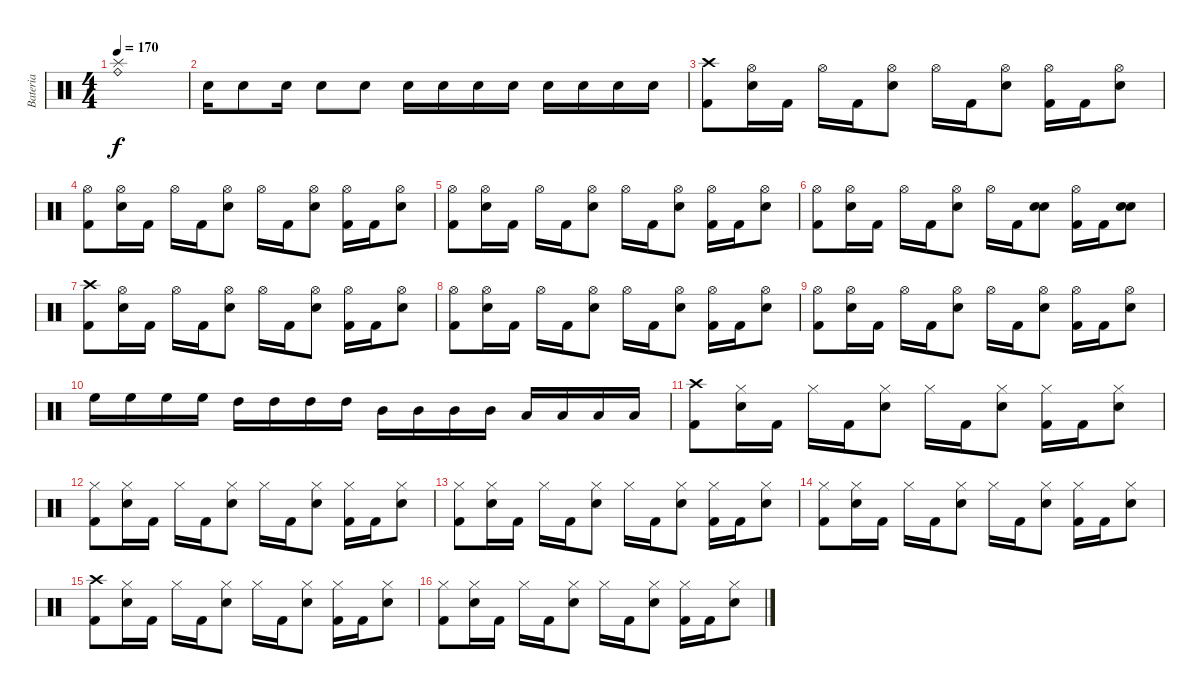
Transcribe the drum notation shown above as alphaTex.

\track ("Bateria" "Bateria") {instrument percussion}
\staff {score}
\articulation defaults
\ts (4 4)
\tempo 170
\clef neutral
\ks c
("Ride (bell)" "Splash (hit)").1{dy f} |
"Snare (hit) 2".16 "Snare (hit) 2".8 "Snare (hit) 2".16 "Snare (hit) 2".8 "Snare (hit) 2".8 "Snare (hit) 2".16 "Snare (hit) 2".16 "Snare (hit) 2".16 "Snare (hit) 2".16 "Snare (hit) 2".16 "Snare (hit) 2".16 "Snare (hit) 2".16 "Snare (hit) 2".16 |
("Crash high (hit)" "Kick (hit) 2").8 ("Hi-Hat (open)" "Snare (hit) 2").16 "Kick (hit) 2".16 "Hi-Hat (open)".16 "Kick (hit) 2".16 ("Hi-Hat (open)" "Snare (hit) 2").8 "Hi-Hat (open)".16 "Kick (hit) 2".16 ("Hi-Hat (open)" "Snare (hit) 2").8 ("Hi-Hat (open)" "Kick (hit) 2").16 "Kick (hit) 2".16 ("Hi-Hat (open)" "Snare (hit) 2").8 |
("Hi-Hat (open)" "Kick (hit) 2").8 ("Hi-Hat (open)" "Snare (hit) 2").16 "Kick (hit) 2".16 "Hi-Hat (open)".16 "Kick (hit) 2".16 ("Hi-Hat (open)" "Snare (hit) 2").8 "Hi-Hat (open)".16 "Kick (hit) 2".16 ("Hi-Hat (open)" "Snare (hit) 2").8 ("Hi-Hat (open)" "Kick (hit) 2").16 "Kick (hit) 2".16 ("Hi-Hat (open)" "Snare (hit) 2").8 |
("Hi-Hat (open)" "Kick (hit) 2").8 ("Hi-Hat (open)" "Snare (hit) 2").16 "Kick (hit) 2".16 "Hi-Hat (open)".16 "Kick (hit) 2".16 ("Hi-Hat (open)" "Snare (hit) 2").8 "Hi-Hat (open)".16 "Kick (hit) 2".16 ("Hi-Hat (open)" "Snare (hit) 2").8 ("Hi-Hat (open)" "Kick (hit) 2").16 "Kick (hit) 2".16 ("Hi-Hat (open)" "Snare (hit) 2").8 |
("Hi-Hat (open)" "Kick (hit) 2").8 ("Hi-Hat (open)" "Snare (hit) 2").16 "Kick (hit) 2".16 "Hi-Hat (open)".16 "Kick (hit) 2".16 ("Hi-Hat (open)" "Snare (hit) 2").8 "Hi-Hat (open)".16 "Kick (hit) 2".16 ("Electric Snare (hit)" "Snare (hit) 2").8 ("Hi-Hat (open)" "Kick (hit) 2").16 "Kick (hit) 2".16 ("Electric Snare (hit)" "Snare (hit) 2").8 |
("Crash high (hit)" "Kick (hit) 2").8 ("Hi-Hat (open)" "Snare (hit) 2").16 "Kick (hit) 2".16 "Hi-Hat (open)".16 "Kick (hit) 2".16 ("Hi-Hat (open)" "Snare (hit) 2").8 "Hi-Hat (open)".16 "Kick (hit) 2".16 ("Hi-Hat (open)" "Snare (hit) 2").8 ("Hi-Hat (open)" "Kick (hit) 2").16 "Kick (hit) 2".16 ("Hi-Hat (open)" "Snare (hit) 2").8 |
("Hi-Hat (open)" "Kick (hit) 2").8 ("Hi-Hat (open)" "Snare (hit) 2").16 "Kick (hit) 2".16 "Hi-Hat (open)".16 "Kick (hit) 2".16 ("Hi-Hat (open)" "Snare (hit) 2").8 "Hi-Hat (open)".16 "Kick (hit) 2".16 ("Hi-Hat (open)" "Snare (hit) 2").8 ("Hi-Hat (open)" "Kick (hit) 2").16 "Kick (hit) 2".16 ("Hi-Hat (open)" "Snare (hit) 2").8 |
("Hi-Hat (open)" "Kick (hit) 2").8 ("Hi-Hat (open)" "Snare (hit) 2").16 "Kick (hit) 2".16 "Hi-Hat (open)".16 "Kick (hit) 2".16 ("Hi-Hat (open)" "Snare (hit) 2").8 "Hi-Hat (open)".16 "Kick (hit) 2".16 ("Hi-Hat (open)" "Snare (hit) 2").8 ("Hi-Hat (open)" "Kick (hit) 2").16 "Kick (hit) 2".16 ("Hi-Hat (open)" "Snare (hit) 2").8 |
"High Floor Tom (hit)".16 "High Floor Tom (hit)".16 "High Floor Tom (hit)".16 "High Floor Tom (hit)".16 "High Tom (hit)".16 "High Tom (hit)".16 "High Tom (hit)".16 "High Tom (hit)".16 "Mid Tom (hit)".16 "Mid Tom (hit)".16 "Mid Tom (hit)".16 "Mid Tom (hit)".16 "Low Tom (hit)".16 "Low Tom (hit)".16 "Low Tom (hit)".16 "Low Tom (hit)".16 |
("Crash high (hit)" "Kick (hit) 2").8 ("Hi-Hat (closed)" "Snare (hit) 2").16 "Kick (hit) 2".16 "Hi-Hat (closed)".16 "Kick (hit) 2".16 ("Hi-Hat (closed)" "Snare (hit) 2").8 "Hi-Hat (closed)".16 "Kick (hit) 2".16 ("Hi-Hat (closed)" "Snare (hit) 2").8 ("Hi-Hat (closed)" "Kick (hit) 2").16 "Kick (hit) 2".16 ("Hi-Hat (closed)" "Snare (hit) 2").8 |
("Hi-Hat (closed)" "Kick (hit) 2").8 ("Hi-Hat (closed)" "Snare (hit) 2").16 "Kick (hit) 2".16 "Hi-Hat (closed)".16 "Kick (hit) 2".16 ("Hi-Hat (closed)" "Snare (hit) 2").8 "Hi-Hat (closed)".16 "Kick (hit) 2".16 ("Hi-Hat (closed)" "Snare (hit) 2").8 ("Hi-Hat (closed)" "Kick (hit) 2").16 "Kick (hit) 2".16 ("Hi-Hat (closed)" "Snare (hit) 2").8 |
("Hi-Hat (closed)" "Kick (hit) 2").8 ("Hi-Hat (closed)" "Snare (hit) 2").16 "Kick (hit) 2".16 "Hi-Hat (closed)".16 "Kick (hit) 2".16 ("Hi-Hat (closed)" "Snare (hit) 2").8 "Hi-Hat (closed)".16 "Kick (hit) 2".16 ("Hi-Hat (closed)" "Snare (hit) 2").8 ("Hi-Hat (closed)" "Kick (hit) 2").16 "Kick (hit) 2".16 ("Hi-Hat (closed)" "Snare (hit) 2").8 |
("Hi-Hat (closed)" "Kick (hit) 2").8 ("Hi-Hat (closed)" "Snare (hit) 2").16 "Kick (hit) 2".16 "Hi-Hat (closed)".16 "Kick (hit) 2".16 ("Hi-Hat (closed)" "Snare (hit) 2").8 "Hi-Hat (closed)".16 "Kick (hit) 2".16 ("Hi-Hat (closed)" "Snare (hit) 2").8 ("Hi-Hat (closed)" "Kick (hit) 2").16 "Kick (hit) 2".16 ("Hi-Hat (closed)" "Snare (hit) 2").8 |
("Crash high (hit)" "Kick (hit) 2").8 ("Hi-Hat (closed)" "Snare (hit) 2").16 "Kick (hit) 2".16 "Hi-Hat (closed)".16 "Kick (hit) 2".16 ("Hi-Hat (closed)" "Snare (hit) 2").8 "Hi-Hat (closed)".16 "Kick (hit) 2".16 ("Hi-Hat (closed)" "Snare (hit) 2").8 ("Hi-Hat (closed)" "Kick (hit) 2").16 "Kick (hit) 2".16 ("Hi-Hat (closed)" "Snare (hit) 2").8 |
("Hi-Hat (closed)" "Kick (hit) 2").8 ("Hi-Hat (closed)" "Snare (hit) 2").16 "Kick (hit) 2".16 "Hi-Hat (closed)".16 "Kick (hit) 2".16 ("Hi-Hat (closed)" "Snare (hit) 2").8 "Hi-Hat (closed)".16 "Kick (hit) 2".16 ("Hi-Hat (closed)" "Snare (hit) 2").8 ("Hi-Hat (closed)" "Kick (hit) 2").16 "Kick (hit) 2".16 ("Hi-Hat (closed)" "Snare (hit) 2").8
